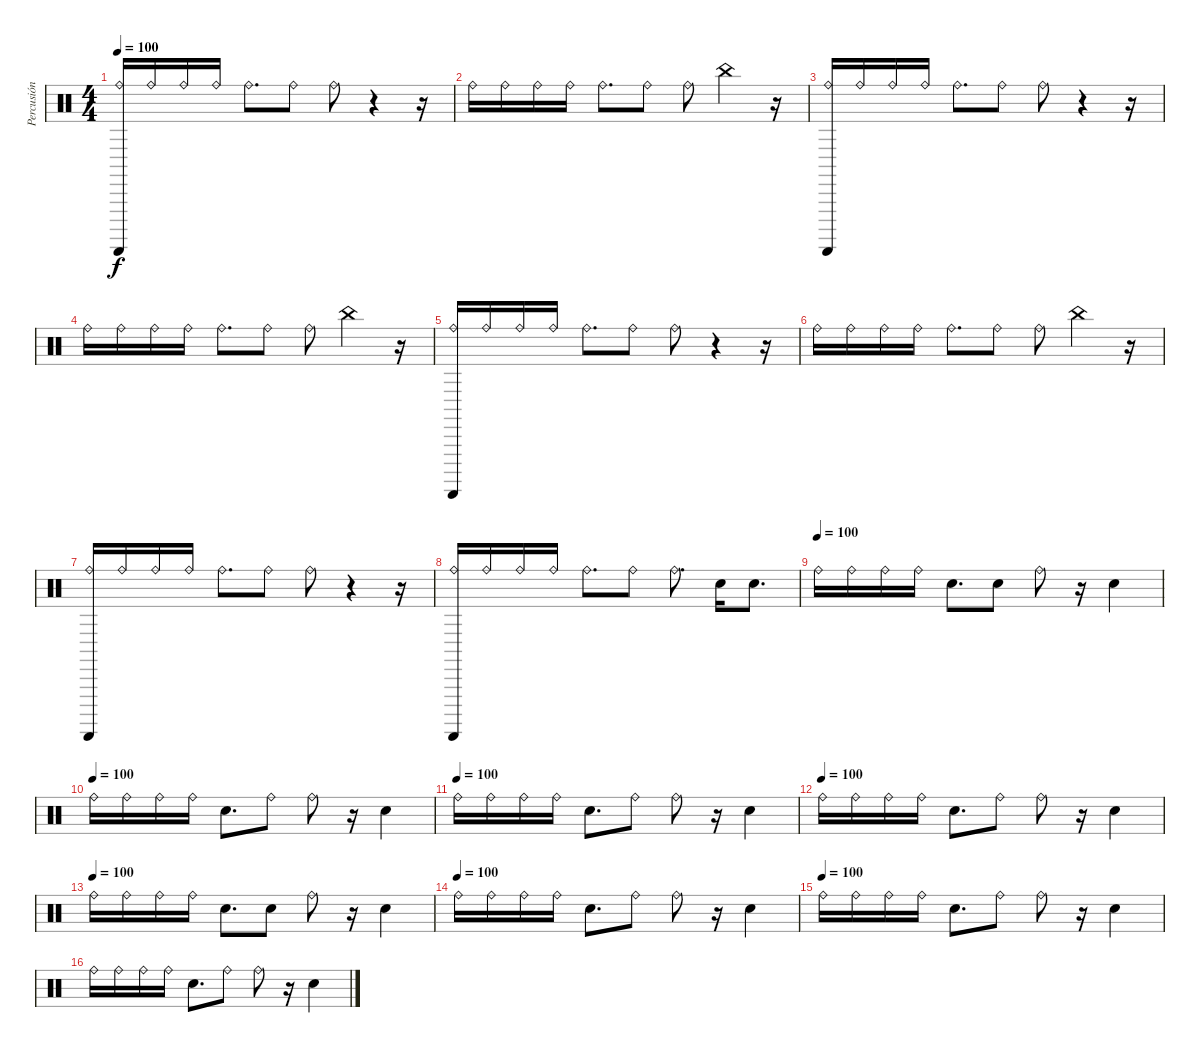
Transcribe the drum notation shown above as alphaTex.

\track ("Percusión" "Percusión") {instrument percussion}
\staff {score}
\articulation defaults
\ts (4 4)
\tempo 100
\clef neutral
\ks c
("Ride (bell)" "Guiro (scrap-return)").16{dy f} "Ride (bell)".16 "Ride (bell)".16 "Ride (bell)".16 "Ride (bell)".8{d} "Ride (bell)".8 "Ride (bell)".8 r.4 r.16 |
"Ride (bell)".16 "Ride (bell)".16 "Ride (bell)".16 "Ride (bell)".16 "Ride (bell)".8{d} "Ride (bell)".8 "Ride (bell)".8 "China (hit)".4 r.16 |
("Ride (bell)" "Guiro (scrap-return)").16 "Ride (bell)".16 "Ride (bell)".16 "Ride (bell)".16 "Ride (bell)".8{d} "Ride (bell)".8 "Ride (bell)".8 r.4 r.16 |
"Ride (bell)".16 "Ride (bell)".16 "Ride (bell)".16 "Ride (bell)".16 "Ride (bell)".8{d} "Ride (bell)".8 "Ride (bell)".8 "China (hit)".4 r.16 |
("Ride (bell)" "Guiro (scrap-return)").16 "Ride (bell)".16 "Ride (bell)".16 "Ride (bell)".16 "Ride (bell)".8{d} "Ride (bell)".8 "Ride (bell)".8 r.4 r.16 |
"Ride (bell)".16 "Ride (bell)".16 "Ride (bell)".16 "Ride (bell)".16 "Ride (bell)".8{d} "Ride (bell)".8 "Ride (bell)".8 "China (hit)".4 r.16 |
("Ride (bell)" "Guiro (scrap-return)").16 "Ride (bell)".16 "Ride (bell)".16 "Ride (bell)".16 "Ride (bell)".8{d} "Ride (bell)".8 "Ride (bell)".8 r.4 r.16 |
("Ride (bell)" "Guiro (scrap-return)").16 "Ride (bell)".16 "Ride (bell)".16 "Ride (bell)".16 "Ride (bell)".8{d} "Ride (bell)".8 "Ride (bell)".8{d} "Electric Snare (hit)".16 "Electric Snare (hit)".8{d} |
\tempo (100)
"Ride (bell)".16 "Ride (bell)".16 "Ride (bell)".16 "Ride (bell)".16 "Electric Snare (hit)".8{d} "Electric Snare (hit)".8 "Ride (bell)".8 r.16 "Electric Snare (hit)".4 |
\tempo (100)
"Ride (bell)".16 "Ride (bell)".16 "Ride (bell)".16 "Ride (bell)".16 "Electric Snare (hit)".8{d} "Ride (bell)".8 "Ride (bell)".8 r.16 "Electric Snare (hit)".4 |
\tempo (100)
"Ride (bell)".16 "Ride (bell)".16 "Ride (bell)".16 "Ride (bell)".16 "Electric Snare (hit)".8{d} "Ride (bell)".8 "Ride (bell)".8 r.16 "Electric Snare (hit)".4 |
\tempo (100)
"Ride (bell)".16 "Ride (bell)".16 "Ride (bell)".16 "Ride (bell)".16 "Electric Snare (hit)".8{d} "Ride (bell)".8 "Ride (bell)".8 r.16 "Electric Snare (hit)".4 |
\tempo (100)
"Ride (bell)".16 "Ride (bell)".16 "Ride (bell)".16 "Ride (bell)".16 "Electric Snare (hit)".8{d} "Electric Snare (hit)".8 "Ride (bell)".8 r.16 "Electric Snare (hit)".4 |
\tempo (100)
"Ride (bell)".16 "Ride (bell)".16 "Ride (bell)".16 "Ride (bell)".16 "Electric Snare (hit)".8{d} "Ride (bell)".8 "Ride (bell)".8 r.16 "Electric Snare (hit)".4 |
\tempo (100)
"Ride (bell)".16 "Ride (bell)".16 "Ride (bell)".16 "Ride (bell)".16 "Electric Snare (hit)".8{d} "Ride (bell)".8 "Ride (bell)".8 r.16 "Electric Snare (hit)".4 |
"Ride (bell)".16 "Ride (bell)".16 "Ride (bell)".16 "Ride (bell)".16 "Electric Snare (hit)".8{d} "Ride (bell)".8 "Ride (bell)".8 r.16 "Electric Snare (hit)".4
